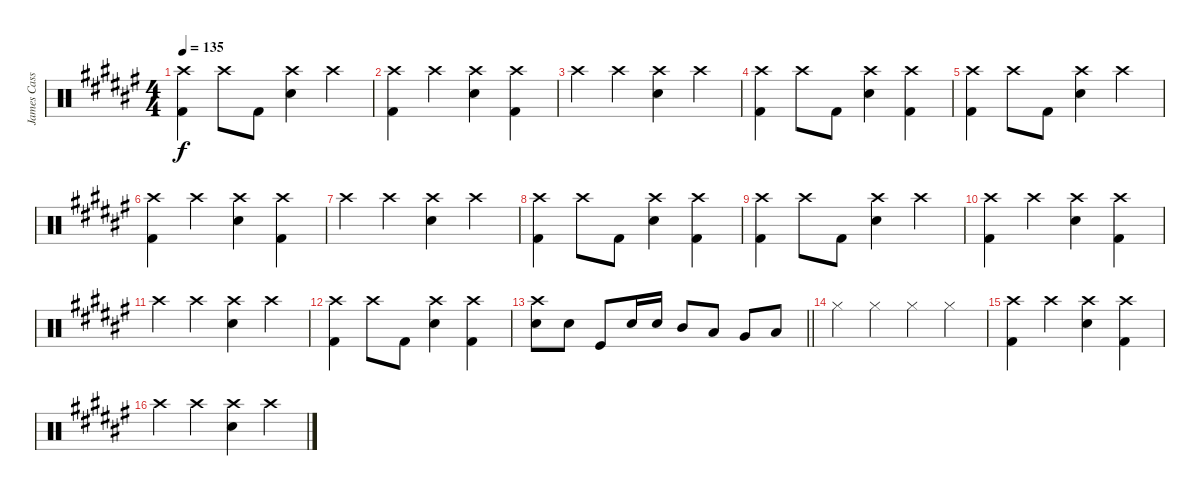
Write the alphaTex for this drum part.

\track ("James Cassells" "James Cass") {instrument percussion}
\staff {score}
\articulation defaults
\ts (4 4)
\tempo 135
\clef neutral
\ks d#minor
("Crash high (hit)" "Kick (hit) 2").4{dy f} "Crash high (hit)".8 "Kick (hit) 2".8 ("Crash high (hit)" "Electric Snare (hit)").4 "Crash high (hit)".4 |
("Crash high (hit)" "Kick (hit) 2").4 "Crash high (hit)".4 ("Crash high (hit)" "Electric Snare (hit)").4 ("Crash high (hit)" "Kick (hit) 2").4 |
"Crash high (hit)".4 "Crash high (hit)".4 ("Crash high (hit)" "Electric Snare (hit)").4 "Crash high (hit)".4 |
("Crash high (hit)" "Kick (hit) 2").4 "Crash high (hit)".8 "Kick (hit) 2".8 ("Crash high (hit)" "Electric Snare (hit)").4 ("Crash high (hit)" "Kick (hit) 2").4 |
("Crash high (hit)" "Kick (hit) 2").4 "Crash high (hit)".8 "Kick (hit) 2".8 ("Crash high (hit)" "Electric Snare (hit)").4 "Crash high (hit)".4 |
("Crash high (hit)" "Kick (hit) 2").4 "Crash high (hit)".4 ("Crash high (hit)" "Electric Snare (hit)").4 ("Crash high (hit)" "Kick (hit) 2").4 |
"Crash high (hit)".4 "Crash high (hit)".4 ("Crash high (hit)" "Electric Snare (hit)").4 "Crash high (hit)".4 |
("Crash high (hit)" "Kick (hit) 2").4 "Crash high (hit)".8 "Kick (hit) 2".8 ("Crash high (hit)" "Electric Snare (hit)").4 ("Crash high (hit)" "Kick (hit) 2").4 |
("Crash high (hit)" "Kick (hit) 2").4 "Crash high (hit)".8 "Kick (hit) 2".8 ("Crash high (hit)" "Electric Snare (hit)").4 "Crash high (hit)".4 |
("Crash high (hit)" "Kick (hit) 2").4 "Crash high (hit)".4 ("Crash high (hit)" "Electric Snare (hit)").4 ("Crash high (hit)" "Kick (hit) 2").4 |
"Crash high (hit)".4 "Crash high (hit)".4 ("Crash high (hit)" "Electric Snare (hit)").4 "Crash high (hit)".4 |
("Crash high (hit)" "Kick (hit) 2").4 "Crash high (hit)".8 "Kick (hit) 2".8 ("Crash high (hit)" "Electric Snare (hit)").4 ("Crash high (hit)" "Kick (hit) 2").4 |
\barLineRight lightlight
("Crash high (hit)" "Electric Snare (hit)").8 "Electric Snare (hit)".8 "Kick (hit)".8 "Electric Snare (hit)".16 "Electric Snare (hit)".16 "Mid Tom (hit)".8 "Low Tom (hit)".8 "Very Low Tom (hit)".8 "Low Floor Tom (hit)".8 |
"Hi-Hat (closed)".4 "Hi-Hat (closed)".4 "Hi-Hat (closed)".4 "Hi-Hat (closed)".4 |
("Crash high (hit)" "Kick (hit) 2").4 "Crash high (hit)".4 ("Crash high (hit)" "Electric Snare (hit)").4 ("Crash high (hit)" "Kick (hit) 2").4 |
"Crash high (hit)".4 "Crash high (hit)".4 ("Crash high (hit)" "Electric Snare (hit)").4 "Crash high (hit)".4
